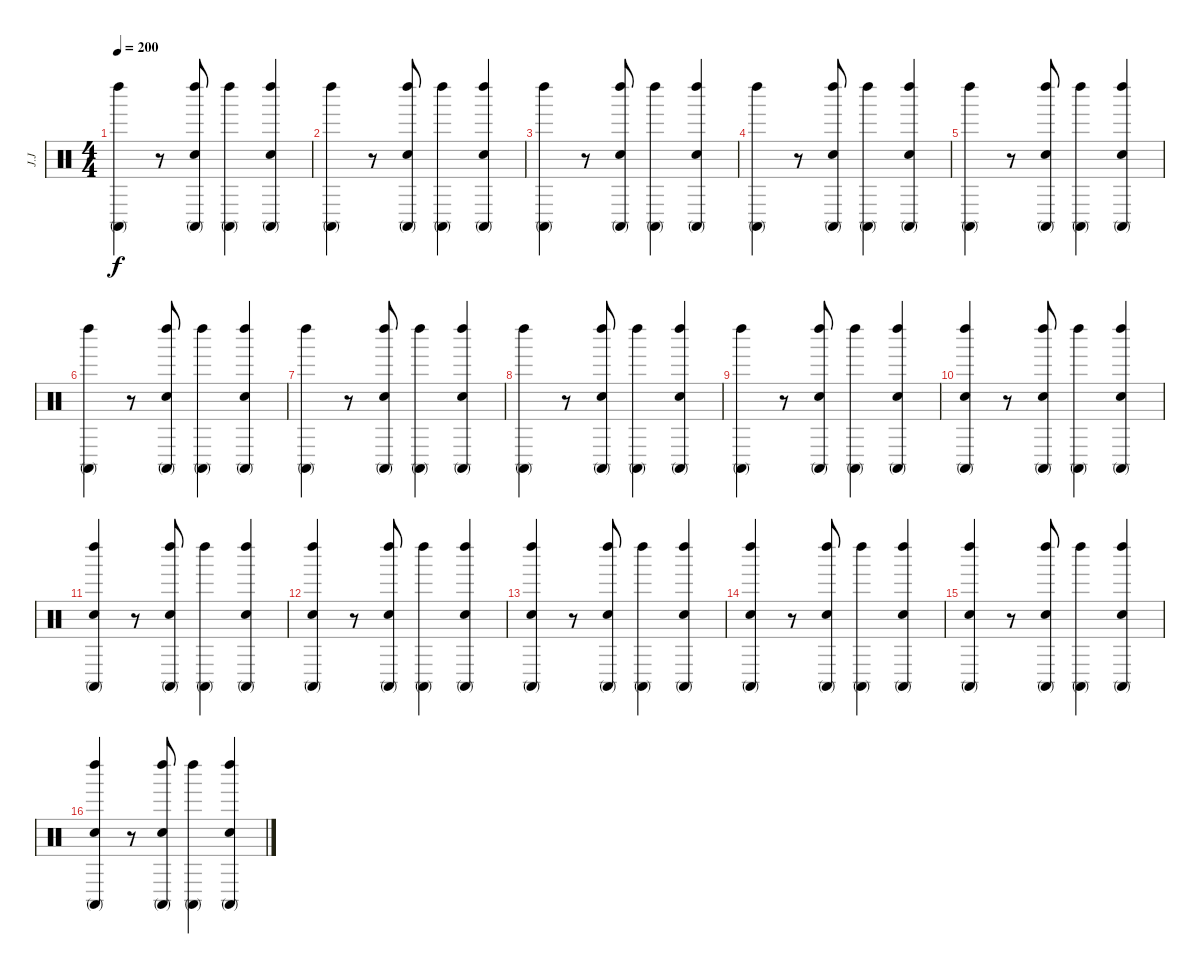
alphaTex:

\track ("J.J" "J.J") {instrument percussion}
\staff {score}
\articulation defaults
\ts (4 4)
\tempo 200
\clef neutral
\ks c
("Conga high (mute)" "Left Maraca (hit)").4{dy f} r.8 ("Conga high (mute)" "Left Maraca (hit)" "Snare (hit) 2").8 ("Conga high (mute)" "Left Maraca (hit)").4 ("Conga high (mute)" "Left Maraca (hit)" "Snare (hit) 2").4 |
("Conga high (mute)" "Left Maraca (hit)").4 r.8 ("Conga high (mute)" "Left Maraca (hit)" "Snare (hit) 2").8 ("Conga high (mute)" "Left Maraca (hit)").4 ("Conga high (mute)" "Left Maraca (hit)" "Snare (hit) 2").4 |
("Conga high (mute)" "Left Maraca (hit)").4 r.8 ("Conga high (mute)" "Left Maraca (hit)" "Snare (hit) 2").8 ("Conga high (mute)" "Left Maraca (hit)").4 ("Conga high (mute)" "Left Maraca (hit)" "Snare (hit) 2").4 |
("Conga high (mute)" "Left Maraca (hit)").4 r.8 ("Conga high (mute)" "Left Maraca (hit)" "Snare (hit) 2").8 ("Conga high (mute)" "Left Maraca (hit)").4 ("Conga high (mute)" "Left Maraca (hit)" "Snare (hit) 2").4 |
("Conga high (mute)" "Left Maraca (hit)").4 r.8 ("Conga high (mute)" "Left Maraca (hit)" "Snare (hit) 2").8 ("Conga high (mute)" "Left Maraca (hit)").4 ("Conga high (mute)" "Left Maraca (hit)" "Snare (hit) 2").4 |
("Conga high (mute)" "Left Maraca (hit)").4 r.8 ("Conga high (mute)" "Left Maraca (hit)" "Snare (hit) 2").8 ("Conga high (mute)" "Left Maraca (hit)").4 ("Conga high (mute)" "Left Maraca (hit)" "Snare (hit) 2").4 |
("Conga high (mute)" "Left Maraca (hit)").4 r.8 ("Conga high (mute)" "Left Maraca (hit)" "Snare (hit) 2").8 ("Conga high (mute)" "Left Maraca (hit)").4 ("Conga high (mute)" "Left Maraca (hit)" "Snare (hit) 2").4 |
("Conga high (mute)" "Left Maraca (hit)").4 r.8 ("Conga high (mute)" "Left Maraca (hit)" "Snare (hit) 2").8 ("Conga high (mute)" "Left Maraca (hit)").4 ("Conga high (mute)" "Left Maraca (hit)" "Snare (hit) 2").4 |
("Conga high (mute)" "Left Maraca (hit)").4 r.8 ("Conga high (mute)" "Left Maraca (hit)" "Snare (hit) 2").8 ("Conga high (mute)" "Left Maraca (hit)").4 ("Conga high (mute)" "Left Maraca (hit)" "Snare (hit) 2").4 |
("Conga high (mute)" "Left Maraca (hit)" "Snare (hit) 2").4 r.8 ("Conga high (mute)" "Left Maraca (hit)" "Snare (hit) 2").8 ("Conga high (mute)" "Left Maraca (hit)").4 ("Conga high (mute)" "Left Maraca (hit)" "Snare (hit) 2").4 |
("Conga high (mute)" "Left Maraca (hit)" "Snare (hit) 2").4 r.8 ("Conga high (mute)" "Left Maraca (hit)" "Snare (hit) 2").8 ("Conga high (mute)" "Left Maraca (hit)").4 ("Conga high (mute)" "Left Maraca (hit)" "Snare (hit) 2").4 |
("Conga high (mute)" "Left Maraca (hit)" "Snare (hit) 2").4 r.8 ("Conga high (mute)" "Left Maraca (hit)" "Snare (hit) 2").8 ("Conga high (mute)" "Left Maraca (hit)").4 ("Conga high (mute)" "Left Maraca (hit)" "Snare (hit) 2").4 |
("Conga high (mute)" "Left Maraca (hit)" "Snare (hit) 2").4 r.8 ("Conga high (mute)" "Left Maraca (hit)" "Snare (hit) 2").8 ("Conga high (mute)" "Left Maraca (hit)").4 ("Conga high (mute)" "Left Maraca (hit)" "Snare (hit) 2").4 |
("Conga high (mute)" "Left Maraca (hit)" "Snare (hit) 2").4 r.8 ("Conga high (mute)" "Left Maraca (hit)" "Snare (hit) 2").8 ("Conga high (mute)" "Left Maraca (hit)").4 ("Conga high (mute)" "Left Maraca (hit)" "Snare (hit) 2").4 |
("Conga high (mute)" "Left Maraca (hit)" "Snare (hit) 2").4 r.8 ("Conga high (mute)" "Left Maraca (hit)" "Snare (hit) 2").8 ("Conga high (mute)" "Left Maraca (hit)").4 ("Conga high (mute)" "Left Maraca (hit)" "Snare (hit) 2").4 |
("Conga high (mute)" "Left Maraca (hit)" "Snare (hit) 2").4 r.8 ("Conga high (mute)" "Left Maraca (hit)" "Snare (hit) 2").8 ("Conga high (mute)" "Left Maraca (hit)").4 ("Conga high (mute)" "Left Maraca (hit)" "Snare (hit) 2").4
